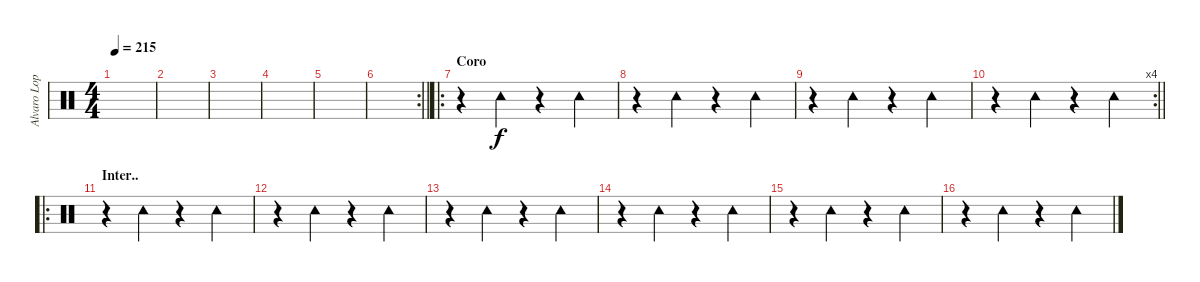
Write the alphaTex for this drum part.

\track ("Alvaro Lopez" "Alvaro Lop") {instrument percussion}
\staff {score}
\articulation defaults
\ts (4 4)
\tempo 215
\clef neutral
\ks c
|
|
|
|
|
\rc 2
\barLineRight lightlight
|
\ro
\section ("" "Coro")
r.4 "Tambourine (hit)".4 r.4 "Tambourine (hit)".4 |
r.4 "Tambourine (hit)".4 r.4 "Tambourine (hit)".4 |
r.4 "Tambourine (hit)".4 r.4 "Tambourine (hit)".4 |
\rc 4
\barLineRight lightlight
r.4 "Tambourine (hit)".4 r.4 "Tambourine (hit)".4 |
\ro
\section ("" "Inter..")
r.4 "Tambourine (hit)".4 r.4 "Tambourine (hit)".4 |
r.4 "Tambourine (hit)".4 r.4 "Tambourine (hit)".4 |
r.4 "Tambourine (hit)".4 r.4 "Tambourine (hit)".4 |
r.4 "Tambourine (hit)".4 r.4 "Tambourine (hit)".4 |
r.4 "Tambourine (hit)".4 r.4 "Tambourine (hit)".4 |
r.4 "Tambourine (hit)".4 r.4 "Tambourine (hit)".4
